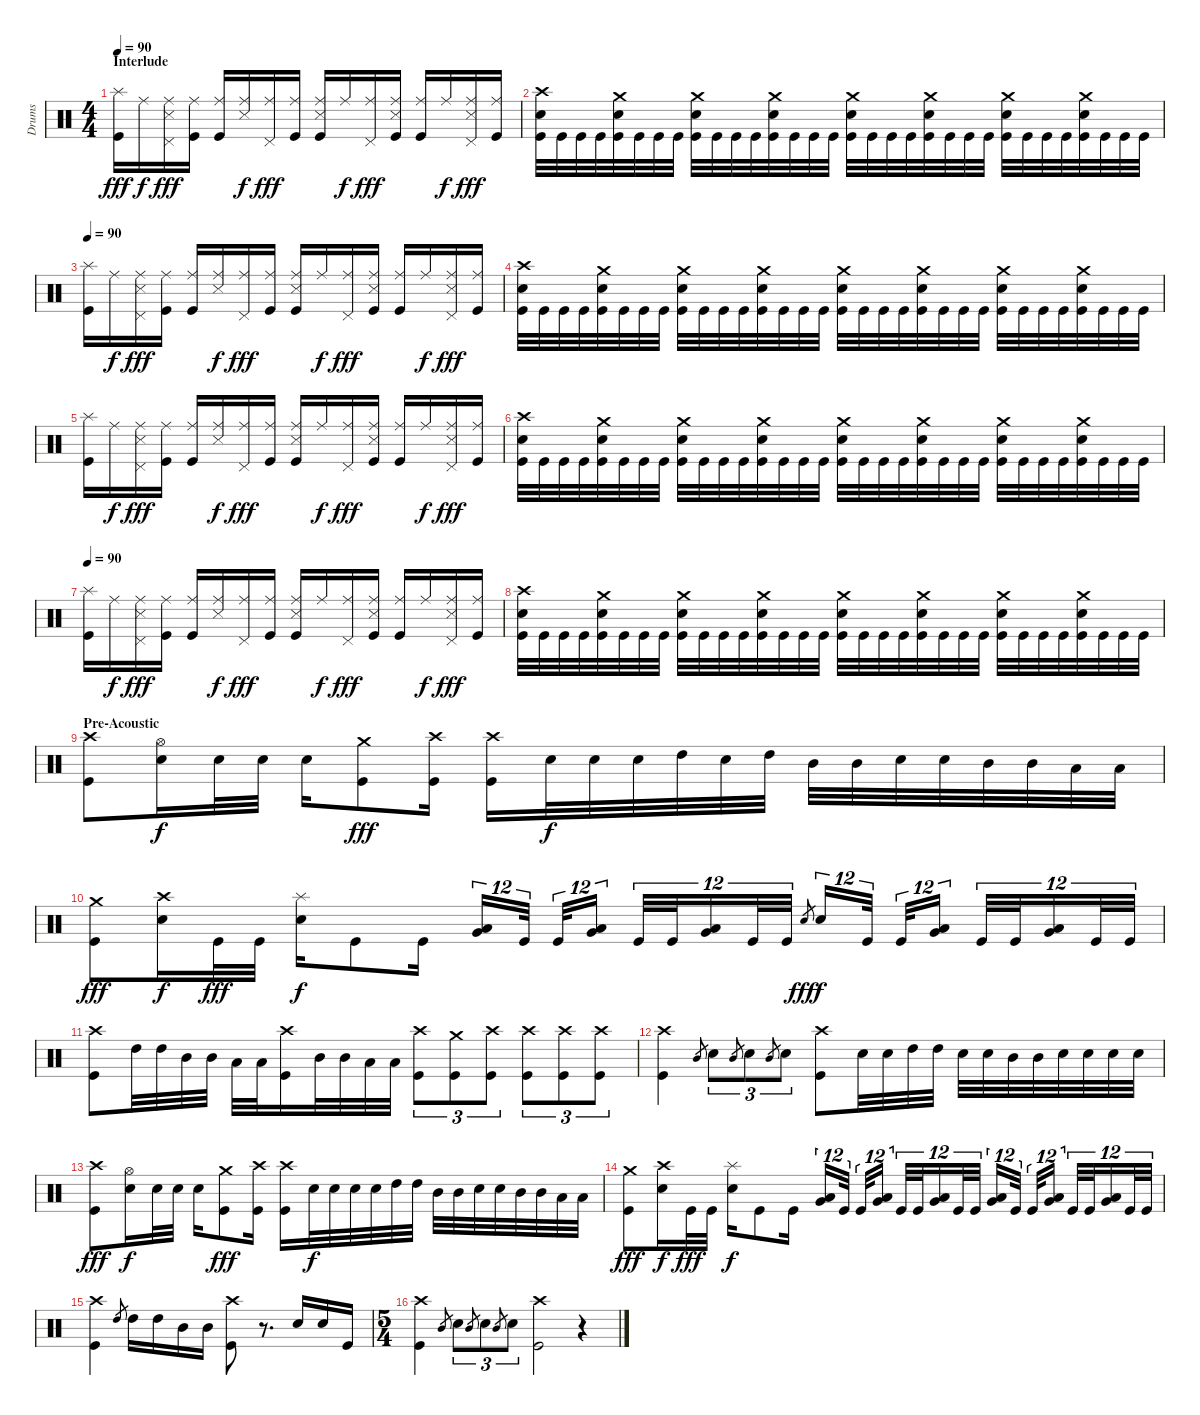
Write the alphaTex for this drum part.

\track ("Drums" "Drums") {instrument percussion}
\staff {score}
\articulation defaults
\ts (4 4)
\section ("" "Interlude")
\tempo 90
\clef neutral
\ks c
("Splash (hit)" "Kick (hit)").16{dy fff} "Ride (middle)".16{dy f} ("Ride (middle)" "Snare (side stick) 3" "Pedal Hi-Hat (hit)").16{dy fff} ("Ride (middle)" "Kick (hit)").16 ("Ride (middle)" "Kick (hit)").16 ("Ride (middle)" "Snare (side stick) 3").16{dy f} ("Ride (middle)" "Pedal Hi-Hat (hit)").16{dy fff} ("Ride (middle)" "Kick (hit)").16 ("Ride (middle)" "Snare (side stick) 3" "Kick (hit)").16 "Ride (middle)".16{dy f} ("Ride (middle)" "Pedal Hi-Hat (hit)").16{dy fff} ("Ride (middle)" "Snare (side stick) 3" "Kick (hit)").16 ("Ride (middle)" "Kick (hit)").16 "Ride (middle)".16{dy f} ("Ride (middle)" "Snare (side stick) 3" "Pedal Hi-Hat (hit)").16{dy fff} ("Ride (middle)" "Kick (hit)").16 |
("Crash high (hit)" "Electric Snare (hit)" "Kick (hit)").32 "Kick (hit)".32 "Kick (hit)".32 "Kick (hit)".32 ("Crash medium (hit)" "Electric Snare (hit)" "Kick (hit)").32 "Kick (hit)".32 "Kick (hit)".32 "Kick (hit)".32 ("Crash medium (hit)" "Electric Snare (hit)" "Kick (hit)").32 "Kick (hit)".32 "Kick (hit)".32 "Kick (hit)".32 ("Crash medium (hit)" "Electric Snare (hit)" "Kick (hit)").32 "Kick (hit)".32 "Kick (hit)".32 "Kick (hit)".32 ("Crash medium (hit)" "Electric Snare (hit)" "Kick (hit)").32 "Kick (hit)".32 "Kick (hit)".32 "Kick (hit)".32 ("Crash medium (hit)" "Electric Snare (hit)" "Kick (hit)").32 "Kick (hit)".32 "Kick (hit)".32 "Kick (hit)".32 ("Crash medium (hit)" "Electric Snare (hit)" "Kick (hit)").32 "Kick (hit)".32 "Kick (hit)".32 "Kick (hit)".32 ("Crash medium (hit)" "Electric Snare (hit)" "Kick (hit)").32 "Kick (hit)".32 "Kick (hit)".32 "Kick (hit)".32 |
\tempo 90
("Splash (hit)" "Kick (hit)").16 "Ride (middle)".16{dy f} ("Ride (middle)" "Snare (side stick) 3" "Pedal Hi-Hat (hit)").16{dy fff} ("Ride (middle)" "Kick (hit)").16 ("Ride (middle)" "Kick (hit)").16 ("Ride (middle)" "Snare (side stick) 3").16{dy f} ("Ride (middle)" "Pedal Hi-Hat (hit)").16{dy fff} ("Ride (middle)" "Kick (hit)").16 ("Ride (middle)" "Snare (side stick) 3" "Kick (hit)").16 "Ride (middle)".16{dy f} ("Ride (middle)" "Pedal Hi-Hat (hit)").16{dy fff} ("Ride (middle)" "Snare (side stick) 3" "Kick (hit)").16 ("Ride (middle)" "Kick (hit)").16 "Ride (middle)".16{dy f} ("Ride (middle)" "Snare (side stick) 3" "Pedal Hi-Hat (hit)").16{dy fff} ("Ride (middle)" "Kick (hit)").16 |
("Crash high (hit)" "Electric Snare (hit)" "Kick (hit)").32 "Kick (hit)".32 "Kick (hit)".32 "Kick (hit)".32 ("Crash medium (hit)" "Electric Snare (hit)" "Kick (hit)").32 "Kick (hit)".32 "Kick (hit)".32 "Kick (hit)".32 ("Crash medium (hit)" "Electric Snare (hit)" "Kick (hit)").32 "Kick (hit)".32 "Kick (hit)".32 "Kick (hit)".32 ("Crash medium (hit)" "Electric Snare (hit)" "Kick (hit)").32 "Kick (hit)".32 "Kick (hit)".32 "Kick (hit)".32 ("Crash medium (hit)" "Electric Snare (hit)" "Kick (hit)").32 "Kick (hit)".32 "Kick (hit)".32 "Kick (hit)".32 ("Crash medium (hit)" "Electric Snare (hit)" "Kick (hit)").32 "Kick (hit)".32 "Kick (hit)".32 "Kick (hit)".32 ("Crash medium (hit)" "Electric Snare (hit)" "Kick (hit)").32 "Kick (hit)".32 "Kick (hit)".32 "Kick (hit)".32 ("Crash medium (hit)" "Electric Snare (hit)" "Kick (hit)").32 "Kick (hit)".32 "Kick (hit)".32 "Kick (hit)".32 |
("Splash (hit)" "Kick (hit)").16 "Ride (middle)".16{dy f} ("Ride (middle)" "Snare (side stick) 3" "Pedal Hi-Hat (hit)").16{dy fff} ("Ride (middle)" "Kick (hit)").16 ("Ride (middle)" "Kick (hit)").16 ("Ride (middle)" "Snare (side stick) 3").16{dy f} ("Ride (middle)" "Pedal Hi-Hat (hit)").16{dy fff} ("Ride (middle)" "Kick (hit)").16 ("Ride (middle)" "Snare (side stick) 3" "Kick (hit)").16 "Ride (middle)".16{dy f} ("Ride (middle)" "Pedal Hi-Hat (hit)").16{dy fff} ("Ride (middle)" "Snare (side stick) 3" "Kick (hit)").16 ("Ride (middle)" "Kick (hit)").16 "Ride (middle)".16{dy f} ("Ride (middle)" "Snare (side stick) 3" "Pedal Hi-Hat (hit)").16{dy fff} ("Ride (middle)" "Kick (hit)").16 |
("Crash high (hit)" "Electric Snare (hit)" "Kick (hit)").32 "Kick (hit)".32 "Kick (hit)".32 "Kick (hit)".32 ("Crash medium (hit)" "Electric Snare (hit)" "Kick (hit)").32 "Kick (hit)".32 "Kick (hit)".32 "Kick (hit)".32 ("Crash medium (hit)" "Electric Snare (hit)" "Kick (hit)").32 "Kick (hit)".32 "Kick (hit)".32 "Kick (hit)".32 ("Crash medium (hit)" "Electric Snare (hit)" "Kick (hit)").32 "Kick (hit)".32 "Kick (hit)".32 "Kick (hit)".32 ("Crash medium (hit)" "Electric Snare (hit)" "Kick (hit)").32 "Kick (hit)".32 "Kick (hit)".32 "Kick (hit)".32 ("Crash medium (hit)" "Electric Snare (hit)" "Kick (hit)").32 "Kick (hit)".32 "Kick (hit)".32 "Kick (hit)".32 ("Crash medium (hit)" "Electric Snare (hit)" "Kick (hit)").32 "Kick (hit)".32 "Kick (hit)".32 "Kick (hit)".32 ("Crash medium (hit)" "Electric Snare (hit)" "Kick (hit)").32 "Kick (hit)".32 "Kick (hit)".32 "Kick (hit)".32 |
\tempo 90
("Splash (hit)" "Kick (hit)").16 "Ride (middle)".16{dy f} ("Ride (middle)" "Snare (side stick) 3" "Pedal Hi-Hat (hit)").16{dy fff} ("Ride (middle)" "Kick (hit)").16 ("Ride (middle)" "Kick (hit)").16 ("Ride (middle)" "Snare (side stick) 3").16{dy f} ("Ride (middle)" "Pedal Hi-Hat (hit)").16{dy fff} ("Ride (middle)" "Kick (hit)").16 ("Ride (middle)" "Snare (side stick) 3" "Kick (hit)").16 "Ride (middle)".16{dy f} ("Ride (middle)" "Pedal Hi-Hat (hit)").16{dy fff} ("Ride (middle)" "Snare (side stick) 3" "Kick (hit)").16 ("Ride (middle)" "Kick (hit)").16 "Ride (middle)".16{dy f} ("Ride (middle)" "Snare (side stick) 3" "Pedal Hi-Hat (hit)").16{dy fff} ("Ride (middle)" "Kick (hit)").16 |
("Crash high (hit)" "Electric Snare (hit)" "Kick (hit)").32 "Kick (hit)".32 "Kick (hit)".32 "Kick (hit)".32 ("Crash medium (hit)" "Electric Snare (hit)" "Kick (hit)").32 "Kick (hit)".32 "Kick (hit)".32 "Kick (hit)".32 ("Crash medium (hit)" "Electric Snare (hit)" "Kick (hit)").32 "Kick (hit)".32 "Kick (hit)".32 "Kick (hit)".32 ("Crash medium (hit)" "Electric Snare (hit)" "Kick (hit)").32 "Kick (hit)".32 "Kick (hit)".32 "Kick (hit)".32 ("Crash medium (hit)" "Electric Snare (hit)" "Kick (hit)").32 "Kick (hit)".32 "Kick (hit)".32 "Kick (hit)".32 ("Crash medium (hit)" "Electric Snare (hit)" "Kick (hit)").32 "Kick (hit)".32 "Kick (hit)".32 "Kick (hit)".32 ("Crash medium (hit)" "Electric Snare (hit)" "Kick (hit)").32 "Kick (hit)".32 "Kick (hit)".32 "Kick (hit)".32 ("Crash medium (hit)" "Electric Snare (hit)" "Kick (hit)").32 "Kick (hit)".32 "Kick (hit)".32 "Kick (hit)".32 |
\section ("" "Pre-Acoustic")
("Crash high (hit)" "Kick (hit)").8 ("Hi-Hat (open)" "Electric Snare (hit)").16{dy f} "Electric Snare (hit)".32 "Electric Snare (hit)".32 "Electric Snare (hit)".16 ("Crash medium (hit)" "Kick (hit)").8{dy fff} ("Crash high (hit)" "Kick (hit)").16 ("Crash high (hit)" "Kick (hit)").16 "Electric Snare (hit)".32{dy f} "Electric Snare (hit)".32 "Electric Snare (hit)".32 "High Tom (hit)".32 "Electric Snare (hit)".32 "High Tom (hit)".32 "Mid Tom (hit)".32 "Mid Tom (hit)".32 "Electric Snare (hit)".32 "Electric Snare (hit)".32 "Mid Tom (hit)".32 "Mid Tom (hit)".32 "Low Tom (hit)".32 "Low Tom (hit)".32 |
("Crash medium (hit)" "Kick (hit)").8{dy fff} ("Crash high (hit)" "Electric Snare (hit)").16{dy f} "Kick (hit)".32{dy fff} "Kick (hit)".32 ("Splash (hit)" "Electric Snare (hit)").16{dy f} "Kick (hit)".8 "Kick (hit)".16 ("Very Low Tom (hit)" "Low Tom (hit)").16{tu (12 8)} "Kick (hit)".32{tu (12 8)} "Kick (hit)".32{tu (12 8)} ("Very Low Tom (hit)" "Low Tom (hit)").16{tu (12 8)} "Kick (hit)".32{tu (12 8)} "Kick (hit)".32{tu (12 8)} ("Very Low Tom (hit)" "Low Tom (hit)").16{tu (12 8)} "Kick (hit)".32{tu (12 8)} "Kick (hit)".32{tu (12 8)} "Electric Snare (hit)".8{gr dy fff} "Electric Snare (hit)".16{tu (12 8) dy f} "Kick (hit)".32{tu (12 8)} "Kick (hit)".32{tu (12 8)} ("Very Low Tom (hit)" "Low Tom (hit)").16{tu (12 8)} "Kick (hit)".32{tu (12 8)} "Kick (hit)".32{tu (12 8)} ("Very Low Tom (hit)" "Low Tom (hit)").16{tu (12 8)} "Kick (hit)".32{tu (12 8)} "Kick (hit)".32{tu (12 8)} |
("Crash high (hit)" "Kick (hit)").8 "High Tom (hit)".32 "High Tom (hit)".32 "Mid Tom (hit)".32 "Mid Tom (hit)".32 "Low Tom (hit)".32 "Low Tom (hit)".32 ("Crash high (hit)" "Kick (hit)").16 "Mid Tom (hit)".32 "Mid Tom (hit)".32 "Low Tom (hit)".32 "Low Tom (hit)".32 ("Crash high (hit)" "Kick (hit)").8{tu (3 2)} ("Crash medium (hit)" "Kick (hit)").8{tu (3 2)} ("Crash high (hit)" "Kick (hit)").8{tu (3 2)} ("Crash high (hit)" "Kick (hit)").8{tu (3 2)} ("Crash high (hit)" "Kick (hit)").8{tu (3 2)} ("Crash high (hit)" "Kick (hit)").8{tu (3 2)} |
("Crash high (hit)" "Kick (hit)").4 "Mid Tom (hit)".8{gr} "Electric Snare (hit)".8{tu (3 2)} "Mid Tom (hit)".8{gr} "Electric Snare (hit)".8{tu (3 2)} "Mid Tom (hit)".8{gr} "Electric Snare (hit)".8{tu (3 2)} ("Crash high (hit)" "Kick (hit)").8 "Electric Snare (hit)".32 "Electric Snare (hit)".32 "High Tom (hit)".32 "High Tom (hit)".32 "Electric Snare (hit)".32 "Electric Snare (hit)".32 "Mid Tom (hit)".32 "Mid Tom (hit)".32 "Electric Snare (hit)".32 "Electric Snare (hit)".32 "Electric Snare (hit)".32 "Electric Snare (hit)".32 |
("Crash high (hit)" "Kick (hit)").8{dy fff} ("Hi-Hat (open)" "Electric Snare (hit)").16{dy f} "Electric Snare (hit)".32 "Electric Snare (hit)".32 "Electric Snare (hit)".16 ("Crash medium (hit)" "Kick (hit)").8{dy fff} ("Crash high (hit)" "Kick (hit)").16 ("Crash high (hit)" "Kick (hit)").16 "Electric Snare (hit)".32{dy f} "Electric Snare (hit)".32 "Electric Snare (hit)".32 "Electric Snare (hit)".32 "High Tom (hit)".32 "High Tom (hit)".32 "Mid Tom (hit)".32 "Mid Tom (hit)".32 "Electric Snare (hit)".32 "Electric Snare (hit)".32 "Mid Tom (hit)".32 "Mid Tom (hit)".32 "Low Tom (hit)".32 "Low Tom (hit)".32 |
("Crash medium (hit)" "Kick (hit)").8{dy fff} ("Crash high (hit)" "Electric Snare (hit)").16{dy f} "Kick (hit)".32{dy fff} "Kick (hit)".32 ("Splash (hit)" "Electric Snare (hit)").16{dy f} "Kick (hit)".8 "Kick (hit)".16 ("Very Low Tom (hit)" "Low Tom (hit)").16{tu (12 8)} "Kick (hit)".32{tu (12 8)} "Kick (hit)".32{tu (12 8)} ("Very Low Tom (hit)" "Low Tom (hit)").16{tu (12 8)} "Kick (hit)".32{tu (12 8)} "Kick (hit)".32{tu (12 8)} ("Very Low Tom (hit)" "Low Tom (hit)").16{tu (12 8)} "Kick (hit)".32{tu (12 8)} "Kick (hit)".32{tu (12 8)} ("Very Low Tom (hit)" "Low Tom (hit)").16{tu (12 8)} "Kick (hit)".32{tu (12 8)} "Kick (hit)".32{tu (12 8)} ("Very Low Tom (hit)" "Low Tom (hit)").16{tu (12 8)} "Kick (hit)".32{tu (12 8)} "Kick (hit)".32{tu (12 8)} ("Very Low Tom (hit)" "Low Tom (hit)").16{tu (12 8)} "Kick (hit)".32{tu (12 8)} "Kick (hit)".32{tu (12 8)} |
("Crash high (hit)" "Kick (hit)").4 "High Tom (hit)".8{gr} "High Tom (hit)".16 "High Tom (hit)".16 "Mid Tom (hit)".16 "Mid Tom (hit)".16 ("Crash high (hit)" "Kick (hit)").8 r.8{d} "Electric Snare (hit)".16 "Electric Snare (hit)".16 "Kick (hit)".16 |
\ts (5 4)
("Crash high (hit)" "Kick (hit)").4 "Mid Tom (hit)".8{gr} "Electric Snare (hit)".8{tu (3 2)} "Mid Tom (hit)".8{gr} "Electric Snare (hit)".8{tu (3 2)} "Mid Tom (hit)".8{gr} "Electric Snare (hit)".8{tu (3 2)} ("Crash high (hit)" "Kick (hit)").2 r.4
